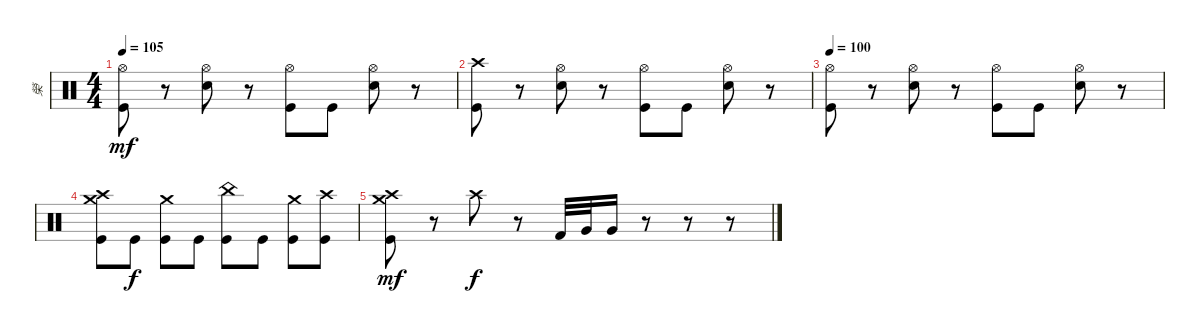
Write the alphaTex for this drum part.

\track ("榮" "榮") {instrument percussion}
\staff {score}
\articulation defaults
\ts (4 4)
\tempo 105
\clef neutral
\ks c
("Hi-Hat (open)" "Kick (hit)").8{dy mf} r.8 ("Hi-Hat (open)" "Snare (hit) 2").8 r.8 ("Hi-Hat (open)" "Kick (hit)").8 "Kick (hit)".8 ("Hi-Hat (open)" "Snare (hit) 2").8 r.8 |
("Crash high (hit)" "Kick (hit)").8 r.8 ("Hi-Hat (open)" "Snare (hit) 2").8 r.8 ("Hi-Hat (open)" "Kick (hit)").8 "Kick (hit)".8 ("Hi-Hat (open)" "Snare (hit) 2").8 r.8 |
\tempo 100
("Hi-Hat (open)" "Kick (hit)").8 r.8 ("Hi-Hat (open)" "Snare (hit) 2").8 r.8 ("Hi-Hat (open)" "Kick (hit)").8 "Kick (hit)".8 ("Hi-Hat (open)" "Snare (hit) 2").8 r.8 |
("Crash high (hit)" "Crash medium (hit)" "Kick (hit)").8 "Kick (hit)".8{dy f} ("Crash medium (hit)" "Kick (hit)").8 "Kick (hit)".8 ("China (hit)" "Kick (hit)").8 "Kick (hit)".8 ("Crash medium (hit)" "Kick (hit)").8 ("Crash high (hit)" "Kick (hit)").8 |
("Crash high (hit)" "Crash medium (hit)" "Kick (hit)").8{dy mf} r.8 "Crash high (hit)".8{dy f} r.8 "Kick (hit) 2".32 "Very Low Tom (hit)".32 "Very Low Tom (hit)".16 r.8 r.8 r.8
